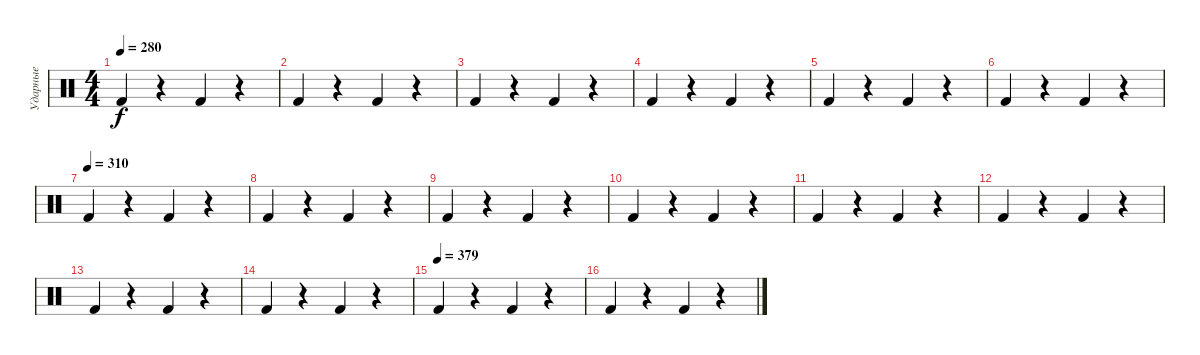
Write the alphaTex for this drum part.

\track ("Ударные" "Ударные") {instrument percussion}
\staff {score}
\articulation defaults
\ts (4 4)
\tempo 280
\clef neutral
\ks c "Kick (hit) 2".4{dy f}
r.4 "Kick (hit) 2".4 r.4 |
"Kick (hit) 2".4 r.4 "Kick (hit) 2".4 r.4 |
"Kick (hit) 2".4 r.4 "Kick (hit) 2".4 r.4 |
"Kick (hit) 2".4 r.4 "Kick (hit) 2".4 r.4 |
"Kick (hit) 2".4 r.4 "Kick (hit) 2".4 r.4 |
"Kick (hit) 2".4 r.4 "Kick (hit) 2".4 r.4 |
\tempo (310)
"Kick (hit) 2".4 r.4 "Kick (hit) 2".4 r.4 |
"Kick (hit) 2".4 r.4 "Kick (hit) 2".4 r.4 |
"Kick (hit) 2".4 r.4 "Kick (hit) 2".4 r.4 |
"Kick (hit) 2".4 r.4 "Kick (hit) 2".4 r.4 |
"Kick (hit) 2".4 r.4 "Kick (hit) 2".4 r.4 |
"Kick (hit) 2".4 r.4 "Kick (hit) 2".4 r.4 |
"Kick (hit) 2".4 r.4 "Kick (hit) 2".4 r.4 |
"Kick (hit) 2".4 r.4 "Kick (hit) 2".4 r.4 |
\tempo (379)
"Kick (hit) 2".4 r.4 "Kick (hit) 2".4 r.4 |
"Kick (hit) 2".4 r.4 "Kick (hit) 2".4 r.4
